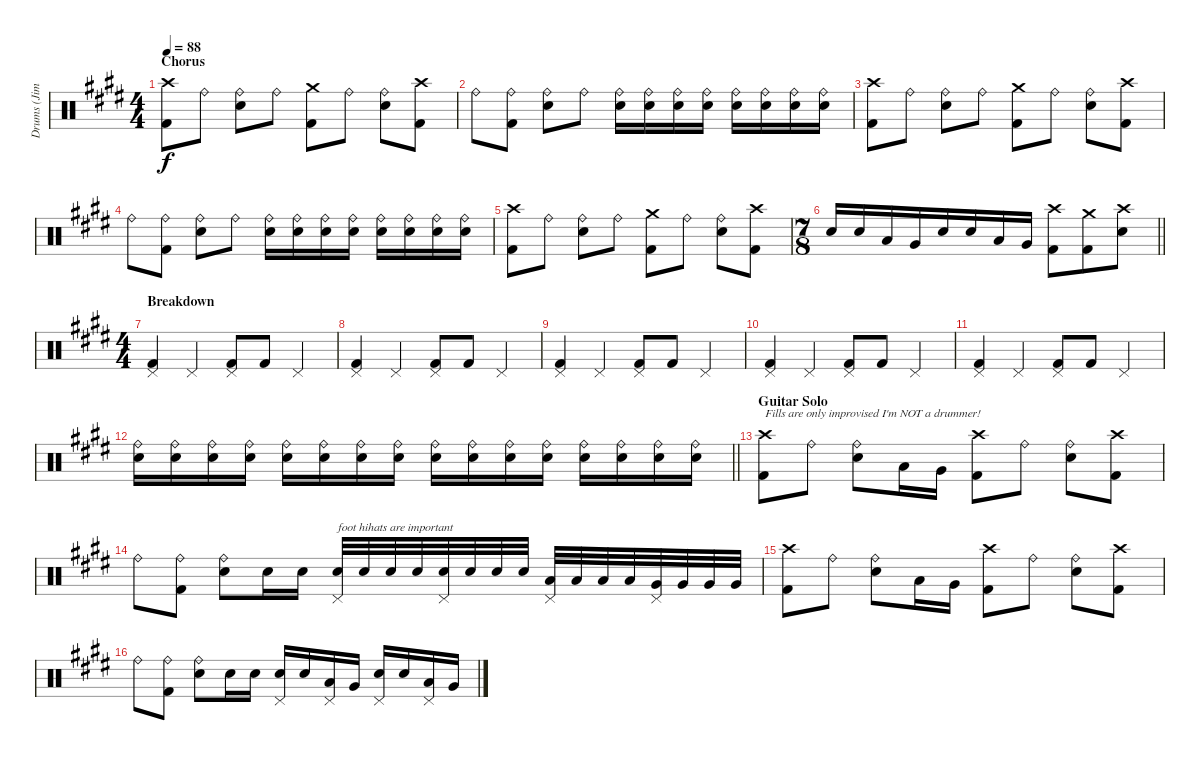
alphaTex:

\track ("Drums (Jimmy)" "Drums (Jim") {instrument percussion}
\staff {score}
\articulation defaults
\ts (4 4)
\section ("" "Chorus")
\tempo 88
\clef neutral
\ks c#minor
("Crash high (hit)" "Kick (hit) 2").8{dy f} "Ride (bell)".8 ("Ride (bell)" "Snare (hit) 2").8 "Ride (bell)".8 ("Crash medium (hit)" "Kick (hit) 2").8 "Ride (bell)".8 ("Ride (bell)" "Snare (hit) 2").8 ("Crash high (hit)" "Kick (hit) 2").8 |
\ks e "Ride (bell)".8
("Ride (bell)" "Kick (hit) 2").8 ("Ride (bell)" "Snare (hit) 2").8 "Ride (bell)".8 ("Ride (bell)" "Snare (hit) 2").16 ("Ride (bell)" "Snare (hit) 2").16 ("Ride (bell)" "Snare (hit) 2").16 ("Ride (bell)" "Snare (hit) 2").16 ("Ride (bell)" "Snare (hit) 2").16 ("Ride (bell)" "Snare (hit) 2").16 ("Ride (bell)" "Snare (hit) 2").16 ("Ride (bell)" "Snare (hit) 2").16 |
\ks c#minor
("Crash high (hit)" "Kick (hit) 2").8 "Ride (bell)".8 ("Ride (bell)" "Snare (hit) 2").8 "Ride (bell)".8 ("Crash medium (hit)" "Kick (hit) 2").8 "Ride (bell)".8 ("Ride (bell)" "Snare (hit) 2").8 ("Crash high (hit)" "Kick (hit) 2").8 |
\ks e "Ride (bell)".8
("Ride (bell)" "Kick (hit) 2").8 ("Ride (bell)" "Snare (hit) 2").8 "Ride (bell)".8 ("Ride (bell)" "Snare (hit) 2").16 ("Ride (bell)" "Snare (hit) 2").16 ("Ride (bell)" "Snare (hit) 2").16 ("Ride (bell)" "Snare (hit) 2").16 ("Ride (bell)" "Snare (hit) 2").16 ("Ride (bell)" "Snare (hit) 2").16 ("Ride (bell)" "Snare (hit) 2").16 ("Ride (bell)" "Snare (hit) 2").16 |
\ks c#minor
("Crash high (hit)" "Kick (hit) 2").8 "Ride (bell)".8 ("Ride (bell)" "Snare (hit) 2").8 "Ride (bell)".8 ("Crash medium (hit)" "Kick (hit) 2").8 "Ride (bell)".8 ("Ride (bell)" "Snare (hit) 2").8 ("Crash high (hit)" "Kick (hit) 2").8 |
\ts (7 8)
\barLineRight lightlight "Snare (hit) 2".16 "Snare (hit) 2".16 "Low Tom (hit)".16 "Very Low Tom (hit)".16 "Snare (hit) 2".16 "Snare (hit) 2".16 "Low Tom (hit)".16 "Very Low Tom (hit)".16
("Crash high (hit)" "Kick (hit) 2").8 ("Crash medium (hit)" "Kick (hit) 2").8 ("Crash high (hit)" "Snare (hit) 2").8 |
\ts (4 4)
\section ("" "Breakdown")
\ks e
("Kick (hit) 2" "Pedal Hi-Hat (hit)").4 "Pedal Hi-Hat (hit)".4 ("Kick (hit) 2" "Pedal Hi-Hat (hit)").8 "Kick (hit) 2".8 "Pedal Hi-Hat (hit)".4 |
("Kick (hit) 2" "Pedal Hi-Hat (hit)").4 "Pedal Hi-Hat (hit)".4 ("Kick (hit) 2" "Pedal Hi-Hat (hit)").8 "Kick (hit) 2".8 "Pedal Hi-Hat (hit)".4 |
("Kick (hit) 2" "Pedal Hi-Hat (hit)").4 "Pedal Hi-Hat (hit)".4 ("Kick (hit) 2" "Pedal Hi-Hat (hit)").8 "Kick (hit) 2".8 "Pedal Hi-Hat (hit)".4 |
("Kick (hit) 2" "Pedal Hi-Hat (hit)").4 "Pedal Hi-Hat (hit)".4 ("Kick (hit) 2" "Pedal Hi-Hat (hit)").8 "Kick (hit) 2".8 "Pedal Hi-Hat (hit)".4 |
("Kick (hit) 2" "Pedal Hi-Hat (hit)").4 "Pedal Hi-Hat (hit)".4 ("Kick (hit) 2" "Pedal Hi-Hat (hit)").8 "Kick (hit) 2".8 "Pedal Hi-Hat (hit)".4 |
\barLineRight lightlight
\ks c#minor
("Ride (bell)" "Snare (hit) 2").16 ("Ride (bell)" "Snare (hit) 2").16 ("Ride (bell)" "Snare (hit) 2").16 ("Ride (bell)" "Snare (hit) 2").16 ("Ride (bell)" "Snare (hit) 2").16 ("Ride (bell)" "Snare (hit) 2").16 ("Ride (bell)" "Snare (hit) 2").16 ("Ride (bell)" "Snare (hit) 2").16 ("Ride (bell)" "Snare (hit) 2").16 ("Ride (bell)" "Snare (hit) 2").16 ("Ride (bell)" "Snare (hit) 2").16 ("Ride (bell)" "Snare (hit) 2").16 ("Ride (bell)" "Snare (hit) 2").16 ("Ride (bell)" "Snare (hit) 2").16 ("Ride (bell)" "Snare (hit) 2").16 ("Ride (bell)" "Snare (hit) 2").16 |
\section ("" "Guitar Solo")
\ks e
("Crash high (hit)" "Kick (hit) 2").8{txt "Fills are only improvised I'm NOT a drummer!"} "Ride (bell)".8 ("Ride (bell)" "Snare (hit) 2").8 "Low Tom (hit)".16 "Very Low Tom (hit)".16 ("Crash high (hit)" "Kick (hit) 2").8 "Ride (bell)".8 ("Ride (bell)" "Snare (hit) 2").8 ("Crash high (hit)" "Kick (hit) 2").8 |
\ks c#minor "Ride (bell)".8
("Ride (bell)" "Kick (hit) 2").8 ("Ride (bell)" "Snare (hit) 2").8 "Snare (hit) 2".16 "Snare (hit) 2".16 ("Snare (hit) 2" "Pedal Hi-Hat (hit)").32{txt "foot hihats are important"} "Snare (hit) 2".32 "Snare (hit) 2".32 "Snare (hit) 2".32 ("Snare (hit) 2" "Pedal Hi-Hat (hit)").32 "Snare (hit) 2".32 "Snare (hit) 2".32 "Snare (hit) 2".32 ("Low Tom (hit)" "Pedal Hi-Hat (hit)").32 "Low Tom (hit)".32 "Low Tom (hit)".32 "Low Tom (hit)".32 ("Very Low Tom (hit)" "Pedal Hi-Hat (hit)").32 "Very Low Tom (hit)".32 "Very Low Tom (hit)".32 "Very Low Tom (hit)".32 |
\ks e
("Crash high (hit)" "Kick (hit) 2").8 "Ride (bell)".8 ("Ride (bell)" "Snare (hit) 2").8 "Low Tom (hit)".16 "Very Low Tom (hit)".16 ("Crash high (hit)" "Kick (hit) 2").8 "Ride (bell)".8 ("Ride (bell)" "Snare (hit) 2").8 ("Crash high (hit)" "Kick (hit) 2").8 |
\ks c#minor "Ride (bell)".8
("Ride (bell)" "Kick (hit) 2").8 ("Ride (bell)" "Snare (hit) 2").8 "Snare (hit) 2".16 "Snare (hit) 2".16 ("Snare (hit) 2" "Pedal Hi-Hat (hit)").16 "Snare (hit) 2".16 ("Low Tom (hit)" "Pedal Hi-Hat (hit)").16 "Very Low Tom (hit)".16 ("Snare (hit) 2" "Pedal Hi-Hat (hit)").16 "Snare (hit) 2".16 ("Low Tom (hit)" "Pedal Hi-Hat (hit)").16 "Very Low Tom (hit)".16
